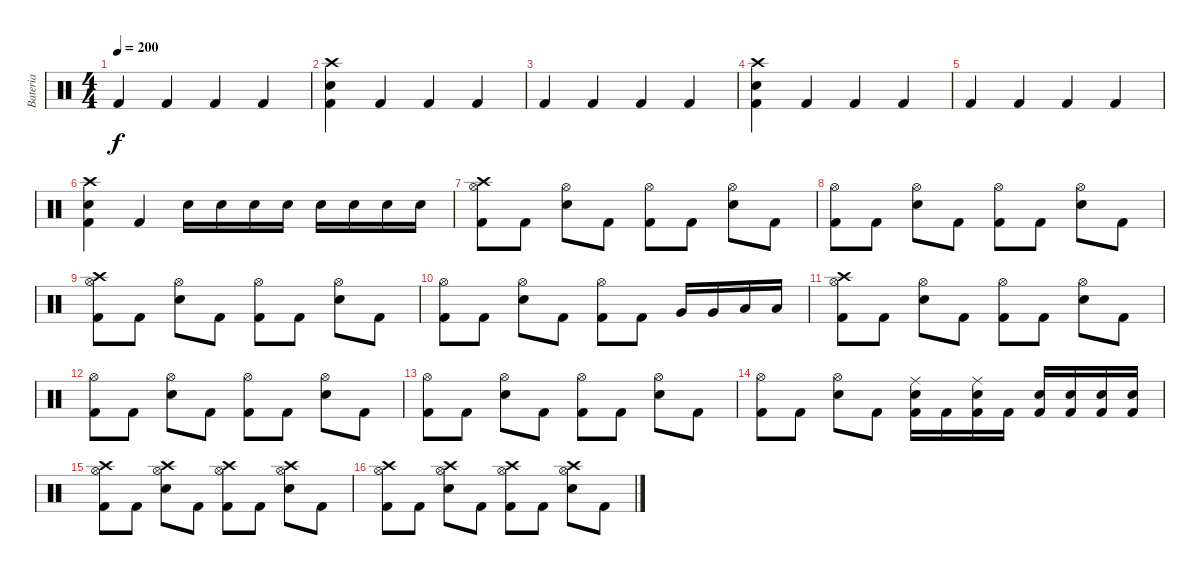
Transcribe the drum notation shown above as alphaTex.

\track ("Bateria" "Bateria") {instrument percussion}
\staff {score}
\articulation defaults
\ts (4 4)
\tempo 200
\clef neutral
\ks c "Kick (hit) 2".4{dy f} "Kick (hit) 2".4 "Kick (hit) 2".4 "Kick (hit) 2".4
|
("Kick (hit) 2" "Electric Snare (hit)" "Crash high (hit)").4 "Kick (hit) 2".4 "Kick (hit) 2".4 "Kick (hit) 2".4 |
"Kick (hit) 2".4 "Kick (hit) 2".4 "Kick (hit) 2".4 "Kick (hit) 2".4 |
("Kick (hit) 2" "Electric Snare (hit)" "Crash high (hit)").4 "Kick (hit) 2".4 "Kick (hit) 2".4 "Kick (hit) 2".4 |
"Kick (hit) 2".4 "Kick (hit) 2".4 "Kick (hit) 2".4 "Kick (hit) 2".4 |
("Kick (hit) 2" "Electric Snare (hit)" "Crash high (hit)").4 "Kick (hit) 2".4 "Electric Snare (hit)".16 "Electric Snare (hit)".16 "Electric Snare (hit)".16 "Electric Snare (hit)".16 "Electric Snare (hit)".16 "Electric Snare (hit)".16 "Electric Snare (hit)".16 "Electric Snare (hit)".16 |
("Kick (hit) 2" "Hi-Hat (open)" "Crash high (hit)").8 "Kick (hit) 2".8 ("Electric Snare (hit)" "Hi-Hat (open)").8 "Kick (hit) 2".8 ("Kick (hit) 2" "Hi-Hat (open)").8 "Kick (hit) 2".8 ("Electric Snare (hit)" "Hi-Hat (open)").8 "Kick (hit) 2".8 |
("Kick (hit) 2" "Hi-Hat (open)").8 "Kick (hit) 2".8 ("Electric Snare (hit)" "Hi-Hat (open)").8 "Kick (hit) 2".8 ("Kick (hit) 2" "Hi-Hat (open)").8 "Kick (hit) 2".8 ("Electric Snare (hit)" "Hi-Hat (open)").8 "Kick (hit) 2".8 |
("Kick (hit) 2" "Hi-Hat (open)" "Crash high (hit)").8 "Kick (hit) 2".8 ("Electric Snare (hit)" "Hi-Hat (open)").8 "Kick (hit) 2".8 ("Kick (hit) 2" "Hi-Hat (open)").8 "Kick (hit) 2".8 ("Electric Snare (hit)" "Hi-Hat (open)").8 "Kick (hit) 2".8 |
("Kick (hit) 2" "Hi-Hat (open)").8 "Kick (hit) 2".8 ("Electric Snare (hit)" "Hi-Hat (open)").8 "Kick (hit) 2".8 ("Kick (hit) 2" "Hi-Hat (open)").8 "Kick (hit) 2".8 "Very Low Tom (hit)".16 "Very Low Tom (hit)".16 "Low Floor Tom (hit)".16 "Low Floor Tom (hit)".16 |
("Kick (hit) 2" "Hi-Hat (open)" "Crash high (hit)").8 "Kick (hit) 2".8 ("Electric Snare (hit)" "Hi-Hat (open)").8 "Kick (hit) 2".8 ("Kick (hit) 2" "Hi-Hat (open)").8 "Kick (hit) 2".8 ("Electric Snare (hit)" "Hi-Hat (open)").8 "Kick (hit) 2".8 |
("Kick (hit) 2" "Hi-Hat (open)").8 "Kick (hit) 2".8 ("Electric Snare (hit)" "Hi-Hat (open)").8 "Kick (hit) 2".8 ("Kick (hit) 2" "Hi-Hat (open)").8 "Kick (hit) 2".8 ("Electric Snare (hit)" "Hi-Hat (open)").8 "Kick (hit) 2".8 |
("Kick (hit) 2" "Hi-Hat (open)").8 "Kick (hit) 2".8 ("Electric Snare (hit)" "Hi-Hat (open)").8 "Kick (hit) 2".8 ("Kick (hit) 2" "Hi-Hat (open)").8 "Kick (hit) 2".8 ("Electric Snare (hit)" "Hi-Hat (open)").8 "Kick (hit) 2".8 |
("Kick (hit) 2" "Hi-Hat (open)").8 "Kick (hit) 2".8 ("Electric Snare (hit)" "Hi-Hat (open)").8 "Kick (hit) 2".8 ("Kick (hit) 2" "Electric Snare (hit)" "Ride (middle)").16 "Kick (hit) 2".16 ("Kick (hit) 2" "Electric Snare (hit)" "Ride (middle)").16 "Kick (hit) 2".16 ("Kick (hit) 2" "Electric Snare (hit)").16 ("Kick (hit) 2" "Electric Snare (hit)").16 ("Kick (hit) 2" "Electric Snare (hit)").16 ("Kick (hit) 2" "Electric Snare (hit)").16 |
("Kick (hit) 2" "Hi-Hat (open)" "Crash high (hit)").8 "Kick (hit) 2".8 ("Electric Snare (hit)" "Hi-Hat (open)" "Crash high (hit)").8 "Kick (hit) 2".8 ("Kick (hit) 2" "Hi-Hat (open)" "Crash high (hit)").8 "Kick (hit) 2".8 ("Electric Snare (hit)" "Hi-Hat (open)" "Crash high (hit)").8 "Kick (hit) 2".8 |
("Kick (hit) 2" "Hi-Hat (open)" "Crash high (hit)").8 "Kick (hit) 2".8 ("Electric Snare (hit)" "Hi-Hat (open)" "Crash high (hit)").8 "Kick (hit) 2".8 ("Kick (hit) 2" "Hi-Hat (open)" "Crash high (hit)").8 "Kick (hit) 2".8 ("Electric Snare (hit)" "Hi-Hat (open)" "Crash high (hit)").8 "Kick (hit) 2".8
